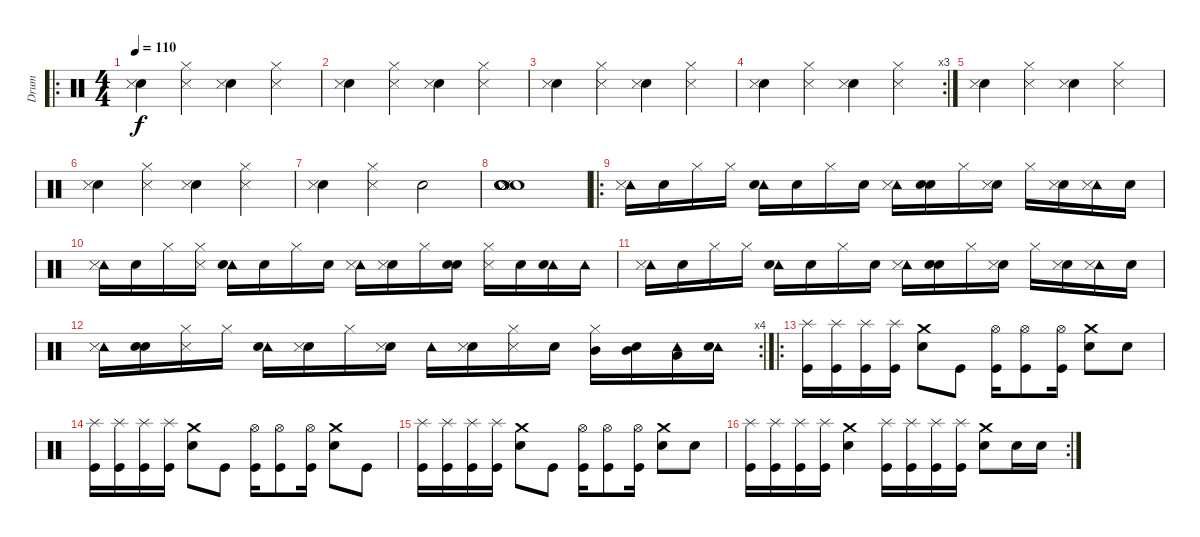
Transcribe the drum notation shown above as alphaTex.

\track ("Drum" "Drum") {instrument percussion}
\staff {score}
\articulation defaults
\ro
\ts (4 4)
\tempo 110
\clef neutral
\ks c
("Snare (hit)" "Metronome (hit)").4{dy f} ("Hi-Hat (closed)" "Metronome (hit)").4 ("Snare (hit)" "Metronome (hit)").4 ("Hi-Hat (closed)" "Metronome (hit)").4 |
("Snare (hit)" "Metronome (hit)").4 ("Hi-Hat (closed)" "Metronome (hit)").4 ("Snare (hit)" "Metronome (hit)").4 ("Hi-Hat (closed)" "Metronome (hit)").4 |
("Snare (hit)" "Metronome (hit)").4 ("Hi-Hat (closed)" "Metronome (hit)").4 ("Snare (hit)" "Metronome (hit)").4 ("Hi-Hat (closed)" "Metronome (hit)").4 |
\rc 3
("Snare (hit)" "Metronome (hit)").4 ("Hi-Hat (closed)" "Metronome (hit)").4 ("Snare (hit)" "Metronome (hit)").4 ("Hi-Hat (closed)" "Metronome (hit)").4 |
("Snare (hit)" "Metronome (hit)").4 ("Hi-Hat (closed)" "Metronome (hit)").4 ("Snare (hit)" "Metronome (hit)").4 ("Hi-Hat (closed)" "Metronome (hit)").4 |
("Snare (hit)" "Metronome (hit)").4 ("Hi-Hat (closed)" "Metronome (hit)").4 ("Snare (hit)" "Metronome (hit)").4 ("Hi-Hat (closed)" "Metronome (hit)").4 |
("Snare (hit)" "Metronome (hit)").4 ("Hi-Hat (closed)" "Metronome (hit)").4 "Snare (hit)".2 |
("Snare (hit)" "Snare (hit)" "Snare (hit)" "Snare (hit)" "Metronome (hit)" "Snare (hit)").1 |
\ro
("Tambourine (hit)" "Metronome (hit)").16 "Snare (hit)".16 "Hi-Hat (closed)".16 "Hi-Hat (closed)".16 ("Tambourine (hit)" "Metronome (bell)").16 "Snare (hit)".16 "Hi-Hat (closed)".16 "Snare (hit)".16 ("Tambourine (hit)" "Metronome (hit)").16 ("Snare (hit)" "Metronome (bell)").16 "Hi-Hat (closed)".16 ("Snare (hit)" "Metronome (hit)").16 "Hi-Hat (closed)".16 ("Snare (hit)" "Metronome (hit)").16 ("Tambourine (hit)" "Metronome (hit)").16 "Snare (hit)".16 |
("Tambourine (hit)" "Metronome (hit)").16 "Snare (hit)".16 "Hi-Hat (closed)".16 ("Hi-Hat (closed)" "Metronome (hit)").16 ("Tambourine (hit)" "Metronome (bell)").16 "Snare (hit)".16 "Hi-Hat (closed)".16 "Snare (hit)".16 ("Tambourine (hit)" "Metronome (hit)").16 ("Snare (hit)" "Metronome (hit)").16 "Hi-Hat (closed)".16 ("Snare (hit)" "Metronome (bell)").16 ("Hi-Hat (closed)" "Metronome (hit)").16 "Snare (hit)".16 ("Tambourine (hit)" "Metronome (bell)").16 "Tambourine (hit)".16 |
("Tambourine (hit)" "Metronome (hit)").16 "Snare (hit)".16 "Hi-Hat (closed)".16 "Hi-Hat (closed)".16 ("Tambourine (hit)" "Metronome (bell)").16 "Snare (hit)".16 "Hi-Hat (closed)".16 "Snare (hit)".16 ("Tambourine (hit)" "Metronome (hit)").16 ("Snare (hit)" "Metronome (bell)").16 "Hi-Hat (closed)".16 ("Snare (hit)" "Metronome (hit)").16 "Hi-Hat (closed)".16 ("Snare (hit)" "Metronome (hit)").16 ("Tambourine (hit)" "Metronome (hit)").16 "Snare (hit)".16 |
\rc 4
("Tambourine (hit)" "Metronome (hit)").16 ("Snare (hit)" "Metronome (bell)").16 ("Hi-Hat (closed)" "Metronome (hit)").16 "Hi-Hat (closed)".16 ("Tambourine (hit)" "Metronome (bell)").16 ("Snare (hit)" "Metronome (hit)").16 "Hi-Hat (closed)".16 ("Snare (hit)" "Metronome (hit)").16 "Tambourine (hit)".16 ("Snare (hit)" "Metronome (hit)").16 ("Hi-Hat (closed)" "Metronome (hit)").16 "Snare (hit)".16 ("Hi-Hat (closed)" "Mid Tom (hit)").16 ("Snare (hit)" "Mid Tom (hit)").16 ("Tambourine (hit)" "Low Floor Tom (hit)").16 ("Tambourine (hit)" "Metronome (bell)").16 |
\ro
("Splash (hit)" "Kick (hit)").16 ("Splash (hit)" "Kick (hit)").16 ("Splash (hit)" "Kick (hit)").16 ("Splash (hit)" "Kick (hit)").16 ("Crash medium (hit)" "Snare (hit) 2").8 "Kick (hit)".8 ("Hi-Hat (open)" "Kick (hit)").16 ("Hi-Hat (open)" "Kick (hit)").8 ("Hi-Hat (open)" "Kick (hit)").16 ("Crash medium (hit)" "Snare (hit) 2").8 "Snare (hit) 2".8 |
("Splash (hit)" "Kick (hit)").16 ("Splash (hit)" "Kick (hit)").16 ("Splash (hit)" "Kick (hit)").16 ("Splash (hit)" "Kick (hit)").16 ("Crash medium (hit)" "Snare (hit) 2").8 "Kick (hit)".8 ("Hi-Hat (open)" "Kick (hit)").16 ("Hi-Hat (open)" "Kick (hit)").8 ("Hi-Hat (open)" "Kick (hit)").16 ("Crash medium (hit)" "Snare (hit) 2").8 "Kick (hit)".8 |
("Splash (hit)" "Kick (hit)").16 ("Splash (hit)" "Kick (hit)").16 ("Splash (hit)" "Kick (hit)").16 ("Splash (hit)" "Kick (hit)").16 ("Crash medium (hit)" "Snare (hit) 2").8 "Kick (hit)".8 ("Hi-Hat (open)" "Kick (hit)").16 ("Hi-Hat (open)" "Kick (hit)").8 ("Hi-Hat (open)" "Kick (hit)").16 ("Crash medium (hit)" "Snare (hit) 2").8 "Snare (hit) 2".8 |
\rc 2
("Splash (hit)" "Kick (hit)").16 ("Splash (hit)" "Kick (hit)").16 ("Splash (hit)" "Kick (hit)").16 ("Splash (hit)" "Kick (hit)").16 ("Crash medium (hit)" "Snare (hit) 2").4 ("Splash (hit)" "Kick (hit)").16 ("Splash (hit)" "Kick (hit)").16 ("Splash (hit)" "Kick (hit)").16 ("Splash (hit)" "Kick (hit)").16 ("Crash medium (hit)" "Snare (hit) 2").8 "Snare (hit) 2".16 "Snare (hit) 2".16
